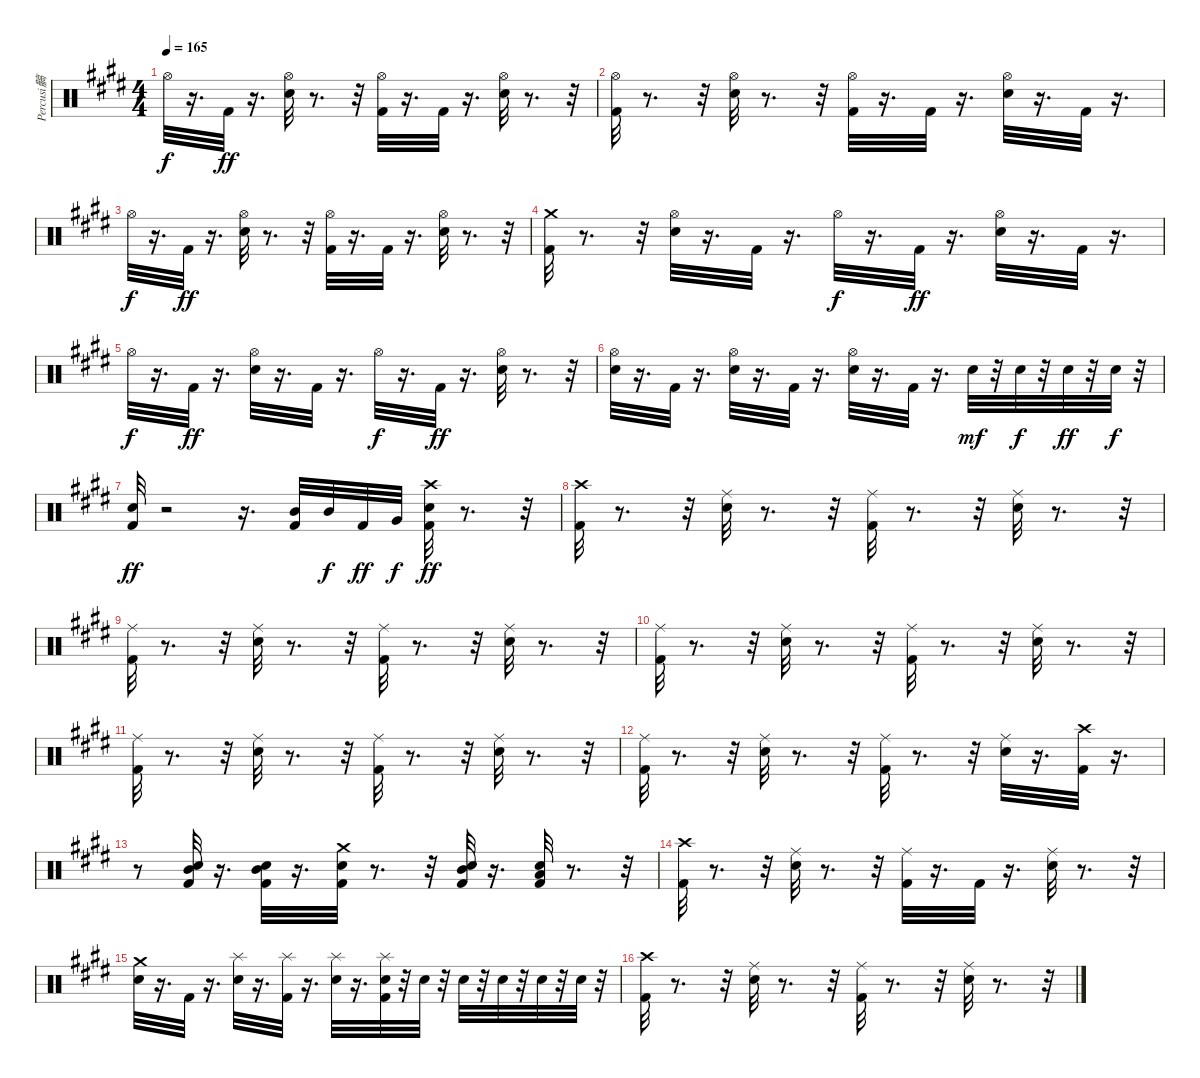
\track ("Percusi髇" "Percusi髇") {instrument percussion}
\staff {score}
\articulation defaults
\ts (4 4)
\tempo 165
\clef neutral
\ks e "Hi-Hat (open)".32{dy f}
r.16{d} "Kick (hit) 2".32{dy ff} r.16{d} ("Electric Snare (hit)" "Hi-Hat (open)").32 r.8{d} r.32 ("Kick (hit) 2" "Hi-Hat (open)").32 r.16{d} "Kick (hit) 2".32 r.16{d} ("Electric Snare (hit)" "Hi-Hat (open)").32 r.8{d} r.32 |
("Kick (hit) 2" "Hi-Hat (open)").32 r.8{d} r.32 ("Electric Snare (hit)" "Hi-Hat (open)").32 r.8{d} r.32 ("Kick (hit) 2" "Hi-Hat (open)").32 r.16{d} "Kick (hit) 2".32 r.16{d} ("Electric Snare (hit)" "Hi-Hat (open)").32 r.16{d} "Kick (hit) 2".32 r.16{d} |
"Hi-Hat (open)".32{dy f} r.16{d} "Kick (hit) 2".32{dy ff} r.16{d} ("Electric Snare (hit)" "Hi-Hat (open)").32 r.8{d} r.32 ("Kick (hit) 2" "Hi-Hat (open)").32 r.16{d} "Kick (hit) 2".32 r.16{d} ("Electric Snare (hit)" "Hi-Hat (open)").32 r.8{d} r.32 |
("Crash medium (hit)" "Kick (hit) 2").32 r.8{d} r.32 ("Electric Snare (hit)" "Hi-Hat (open)").32 r.16{d} "Kick (hit) 2".32 r.16{d} "Hi-Hat (open)".32{dy f} r.16{d} "Kick (hit) 2".32{dy ff} r.16{d} ("Electric Snare (hit)" "Hi-Hat (open)").32 r.16{d} "Kick (hit) 2".32 r.16{d} |
"Hi-Hat (open)".32{dy f} r.16{d} "Kick (hit) 2".32{dy ff} r.16{d} ("Electric Snare (hit)" "Hi-Hat (open)").32 r.16{d} "Kick (hit) 2".32 r.16{d} "Hi-Hat (open)".32{dy f} r.16{d} "Kick (hit) 2".32{dy ff} r.16{d} ("Electric Snare (hit)" "Hi-Hat (open)").32 r.8{d} r.32 |
("Hi-Hat (open)" "Electric Snare (hit)").32 r.16{d} "Kick (hit) 2".32 r.16{d} ("Electric Snare (hit)" "Hi-Hat (open)").32 r.16{d} "Kick (hit) 2".32 r.16{d} ("Electric Snare (hit)" "Hi-Hat (open)").32 r.16{d} "Kick (hit) 2".32 r.16{d} "Electric Snare (hit)".32{dy mf} r.32 "Electric Snare (hit)".32{dy f} r.32 "Electric Snare (hit)".32{dy ff} r.32 "Electric Snare (hit)".32{dy f} r.32 |
("Kick (hit) 2" "Electric Snare (hit)").32{dy ff} r.2 r.16{d} ("Mid Tom (hit)" "Kick (hit) 2").32 "Mid Tom (hit)".32{dy f} "Kick (hit) 2".32{dy ff} "Very Low Tom (hit)".32{dy f} ("Crash high (hit)" "Kick (hit) 2" "Electric Snare (hit)").32{dy ff} r.8{d} r.32 |
("Crash high (hit)" "Kick (hit) 2").32 r.8{d} r.32 ("Electric Snare (hit)" "Ride (middle)").32 r.8{d} r.32 ("Kick (hit) 2" "Ride (middle)").32 r.8{d} r.32 ("Electric Snare (hit)" "Ride (middle)").32 r.8{d} r.32 |
("Kick (hit) 2" "Ride (middle)").32 r.8{d} r.32 ("Electric Snare (hit)" "Ride (middle)").32 r.8{d} r.32 ("Kick (hit) 2" "Ride (middle)").32 r.8{d} r.32 ("Electric Snare (hit)" "Ride (middle)").32 r.8{d} r.32 |
("Kick (hit) 2" "Ride (middle)").32 r.8{d} r.32 ("Electric Snare (hit)" "Ride (middle)").32 r.8{d} r.32 ("Kick (hit) 2" "Ride (middle)").32 r.8{d} r.32 ("Electric Snare (hit)" "Ride (middle)").32 r.8{d} r.32 |
("Kick (hit) 2" "Ride (middle)").32 r.8{d} r.32 ("Electric Snare (hit)" "Ride (middle)").32 r.8{d} r.32 ("Kick (hit) 2" "Ride (middle)").32 r.8{d} r.32 ("Electric Snare (hit)" "Ride (middle)").32 r.8{d} r.32 |
("Kick (hit) 2" "Ride (middle)").32 r.8{d} r.32 ("Electric Snare (hit)" "Ride (middle)").32 r.8{d} r.32 ("Kick (hit) 2" "Ride (middle)").32 r.8{d} r.32 ("Electric Snare (hit)" "Ride (middle)").32 r.16{d} ("Crash high (hit)" "Kick (hit) 2").32 r.16{d} |
r.8 ("Mid Tom (hit)" "Kick (hit) 2" "Electric Snare (hit)").32 r.16{d} ("Mid Tom (hit)" "Kick (hit) 2" "Electric Snare (hit)").32 r.16{d} ("Crash medium (hit)" "Kick (hit) 2" "Electric Snare (hit)").32 r.8{d} r.32 ("Mid Tom (hit)" "Kick (hit) 2" "Electric Snare (hit)").32 r.16{d} ("Kick (hit) 2" "Low Tom (hit)" "Electric Snare (hit)").32 r.8{d} r.32 |
("Crash high (hit)" "Kick (hit) 2").32 r.8{d} r.32 ("Electric Snare (hit)" "Ride (middle)").32 r.8{d} r.32 ("Kick (hit) 2" "Ride (middle)").32 r.16{d} "Kick (hit) 2".32 r.16{d} ("Electric Snare (hit)" "Ride (middle)").32 r.8{d} r.32 |
("Crash medium (hit)" "Electric Snare (hit)").32 r.16{d} "Kick (hit) 2".32 r.16{d} ("Splash (hit)" "Electric Snare (hit)").32 r.16{d} ("Splash (hit)" "Kick (hit) 2").32 r.16{d} ("Splash (hit)" "Electric Snare (hit)").32 r.16{d} ("Splash (hit)" "Kick (hit) 2" "Electric Snare (hit)").32 r.32 "Electric Snare (hit)".32 r.32 "Electric Snare (hit)".32 r.32 "Electric Snare (hit)".32 r.32 "Electric Snare (hit)".32 r.32 "Electric Snare (hit)".32 r.32 |
("Crash high (hit)" "Kick (hit) 2").32 r.8{d} r.32 ("Electric Snare (hit)" "Ride (middle)").32 r.8{d} r.32 ("Kick (hit) 2" "Ride (middle)").32 r.8{d} r.32 ("Electric Snare (hit)" "Ride (middle)").32 r.8{d} r.32
